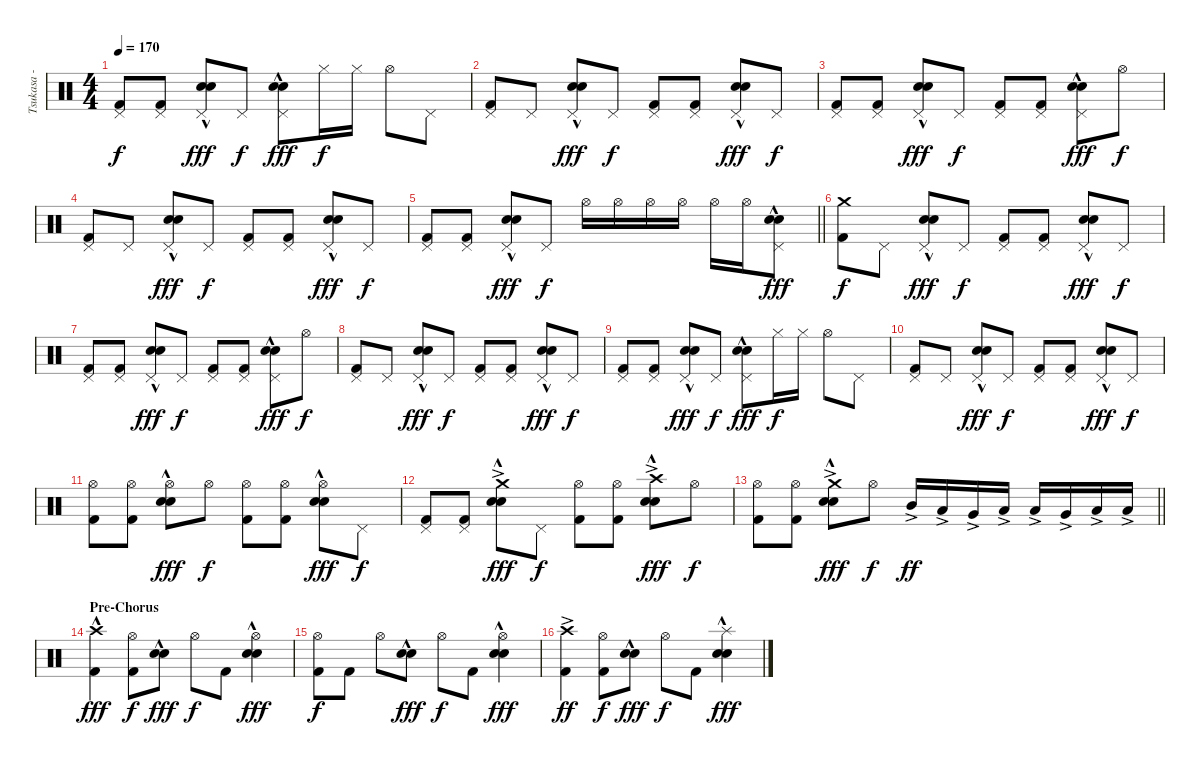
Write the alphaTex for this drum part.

\track ("Tsukasa - Drums" "Tsukasa - ") {instrument percussion}
\staff {score}
\articulation defaults
\ts (4 4)
\tempo 170
\clef neutral
\ks c
("Pedal Hi-Hat (hit)" "Kick (hit) 2").8{dy f} ("Pedal Hi-Hat (hit)" "Kick (hit) 2").8 ("Pedal Hi-Hat (hit)" "Electric Snare (hit)"{hac} "Snare (hit) 2").8{dy fff} "Pedal Hi-Hat (hit)".8{dy f} ("Pedal Hi-Hat (hit)" "Electric Snare (hit)"{hac} "Snare (hit) 2").8{dy fff} "Hi-Hat (closed)".16{dy f} "Hi-Hat (closed)".16 "Hi-Hat (open)".8 "Pedal Hi-Hat (hit)".8 |
("Pedal Hi-Hat (hit)" "Kick (hit) 2").8 "Pedal Hi-Hat (hit)".8 ("Pedal Hi-Hat (hit)" "Electric Snare (hit)"{hac} "Snare (hit) 2").8{dy fff} "Pedal Hi-Hat (hit)".8{dy f} ("Pedal Hi-Hat (hit)" "Kick (hit) 2").8 ("Pedal Hi-Hat (hit)" "Kick (hit) 2").8 ("Pedal Hi-Hat (hit)" "Electric Snare (hit)"{hac} "Snare (hit) 2").8{dy fff} "Pedal Hi-Hat (hit)".8{dy f} |
("Pedal Hi-Hat (hit)" "Kick (hit) 2").8 ("Pedal Hi-Hat (hit)" "Kick (hit) 2").8 ("Pedal Hi-Hat (hit)" "Electric Snare (hit)"{hac} "Snare (hit) 2").8{dy fff} "Pedal Hi-Hat (hit)".8{dy f} ("Pedal Hi-Hat (hit)" "Kick (hit) 2").8 ("Pedal Hi-Hat (hit)" "Kick (hit) 2").8 ("Pedal Hi-Hat (hit)" "Electric Snare (hit)"{hac} "Snare (hit) 2").8{dy fff} "Hi-Hat (open)".8{dy f} |
("Pedal Hi-Hat (hit)" "Kick (hit) 2").8 "Pedal Hi-Hat (hit)".8 ("Pedal Hi-Hat (hit)" "Electric Snare (hit)"{hac} "Snare (hit) 2").8{dy fff} "Pedal Hi-Hat (hit)".8{dy f} ("Pedal Hi-Hat (hit)" "Kick (hit) 2").8 ("Pedal Hi-Hat (hit)" "Kick (hit) 2").8 ("Pedal Hi-Hat (hit)" "Electric Snare (hit)"{hac} "Snare (hit) 2").8{dy fff} "Pedal Hi-Hat (hit)".8{dy f} |
\barLineRight lightlight
("Pedal Hi-Hat (hit)" "Kick (hit) 2").8 ("Pedal Hi-Hat (hit)" "Kick (hit) 2").8 ("Pedal Hi-Hat (hit)" "Electric Snare (hit)"{hac} "Snare (hit) 2").8{dy fff} "Pedal Hi-Hat (hit)".8{dy f} "Hi-Hat (open)".16 "Hi-Hat (open)".16 "Hi-Hat (open)".16 "Hi-Hat (open)".16 "Hi-Hat (open)".16 "Hi-Hat (open)".16 ("Pedal Hi-Hat (hit)" "Electric Snare (hit)"{hac} "Snare (hit) 2").8{dy fff} |
\section ("" "")
("Crash medium (hit)" "Kick (hit) 2").8{dy f} "Pedal Hi-Hat (hit)".8 ("Pedal Hi-Hat (hit)" "Electric Snare (hit)"{hac} "Snare (hit) 2").8{dy fff} "Pedal Hi-Hat (hit)".8{dy f} ("Pedal Hi-Hat (hit)" "Kick (hit) 2").8 ("Pedal Hi-Hat (hit)" "Kick (hit) 2").8 ("Pedal Hi-Hat (hit)" "Electric Snare (hit)"{hac} "Snare (hit) 2").8{dy fff} "Pedal Hi-Hat (hit)".8{dy f} |
("Pedal Hi-Hat (hit)" "Kick (hit) 2").8 ("Pedal Hi-Hat (hit)" "Kick (hit) 2").8 ("Pedal Hi-Hat (hit)" "Electric Snare (hit)"{hac} "Snare (hit) 2").8{dy fff} "Pedal Hi-Hat (hit)".8{dy f} ("Pedal Hi-Hat (hit)" "Kick (hit) 2").8 ("Pedal Hi-Hat (hit)" "Kick (hit) 2").8 ("Pedal Hi-Hat (hit)" "Electric Snare (hit)"{hac} "Snare (hit) 2").8{dy fff} "Hi-Hat (open)".8{dy f} |
("Pedal Hi-Hat (hit)" "Kick (hit) 2").8 "Pedal Hi-Hat (hit)".8 ("Pedal Hi-Hat (hit)" "Electric Snare (hit)"{hac} "Snare (hit) 2").8{dy fff} "Pedal Hi-Hat (hit)".8{dy f} ("Pedal Hi-Hat (hit)" "Kick (hit) 2").8 ("Pedal Hi-Hat (hit)" "Kick (hit) 2").8 ("Pedal Hi-Hat (hit)" "Electric Snare (hit)"{hac} "Snare (hit) 2").8{dy fff} "Pedal Hi-Hat (hit)".8{dy f} |
("Pedal Hi-Hat (hit)" "Kick (hit) 2").8 ("Pedal Hi-Hat (hit)" "Kick (hit) 2").8 ("Pedal Hi-Hat (hit)" "Electric Snare (hit)"{hac} "Snare (hit) 2").8{dy fff} "Pedal Hi-Hat (hit)".8{dy f} ("Pedal Hi-Hat (hit)" "Electric Snare (hit)"{hac} "Snare (hit) 2").8{dy fff} "Hi-Hat (closed)".16{dy f} "Hi-Hat (closed)".16 "Hi-Hat (open)".8 "Pedal Hi-Hat (hit)".8 |
("Pedal Hi-Hat (hit)" "Kick (hit) 2").8 "Pedal Hi-Hat (hit)".8 ("Pedal Hi-Hat (hit)" "Electric Snare (hit)"{hac} "Snare (hit) 2").8{dy fff} "Pedal Hi-Hat (hit)".8{dy f} ("Pedal Hi-Hat (hit)" "Kick (hit) 2").8 ("Pedal Hi-Hat (hit)" "Kick (hit) 2").8 ("Pedal Hi-Hat (hit)" "Electric Snare (hit)"{hac} "Snare (hit) 2").8{dy fff} "Pedal Hi-Hat (hit)".8{dy f} |
("Hi-Hat (open)" "Kick (hit) 2").8 ("Hi-Hat (open)" "Kick (hit) 2").8 ("Hi-Hat (open)" "Electric Snare (hit)"{hac} "Snare (hit) 2").8{dy fff} "Hi-Hat (open)".8{dy f} ("Hi-Hat (open)" "Kick (hit) 2").8 ("Hi-Hat (open)" "Kick (hit) 2").8 ("Hi-Hat (open)" "Electric Snare (hit)"{hac} "Snare (hit) 2").8{dy fff} "Pedal Hi-Hat (hit)".8{dy f} |
("Pedal Hi-Hat (hit)" "Kick (hit) 2").8 ("Pedal Hi-Hat (hit)" "Kick (hit) 2").8 ("Crash medium (hit)"{ac} "Electric Snare (hit)"{hac} "Snare (hit) 2").8{dy fff} "Pedal Hi-Hat (hit)".8{dy f} ("Hi-Hat (open)" "Kick (hit) 2").8 ("Hi-Hat (open)" "Kick (hit) 2").8 ("Crash high (hit)"{ac} "Electric Snare (hit)"{hac} "Snare (hit) 2").8{dy fff} "Hi-Hat (open)".8{dy f} |
\barLineRight lightlight
("Hi-Hat (open)" "Kick (hit) 2").8 ("Hi-Hat (open)" "Kick (hit) 2").8 ("Crash medium (hit)"{ac} "Electric Snare (hit)"{hac} "Snare (hit) 2").8{dy fff} "Hi-Hat (open)".8{dy f} "Mid Tom (hit)"{ac}.16{dy ff} "Low Tom (hit)"{ac}.16 "Very Low Tom (hit)"{ac}.16 "Low Floor Tom (hit)"{ac}.16 "Low Tom (hit)"{ac}.16 "Very Low Tom (hit)"{ac}.16 "Low Floor Tom (hit)"{ac}.16 "Low Floor Tom (hit)"{ac}.16 |
\section ("" "Pre-Chorus")
("Crash high (hit)"{hac} "Kick (hit) 2").4{dy fff} ("Hi-Hat (open)" "Kick (hit) 2").8{dy f} ("Electric Snare (hit)"{hac} "Snare (hit) 2").8{dy fff} "Hi-Hat (open)".8{dy f} "Kick (hit) 2".8 ("Hi-Hat (open)" "Electric Snare (hit)"{hac} "Snare (hit) 2").4{dy fff} |
("Hi-Hat (open)" "Kick (hit) 2").8{dy f} "Kick (hit) 2".8 "Hi-Hat (open)".8 ("Electric Snare (hit)"{hac} "Snare (hit) 2").8{dy fff} "Hi-Hat (open)".8{dy f} "Kick (hit) 2".8 ("Hi-Hat (open)" "Electric Snare (hit)"{hac} "Snare (hit) 2").4{dy fff} |
("Crash high (hit)"{ac} "Kick (hit) 2").4{dy ff} ("Hi-Hat (open)" "Kick (hit) 2").8{dy f} ("Electric Snare (hit)"{hac} "Snare (hit) 2").8{dy fff} "Hi-Hat (open)".8{dy f} "Kick (hit) 2".8 ("Splash (hit)"{hac} "Electric Snare (hit)"{hac} "Snare (hit) 2").4{dy fff}
